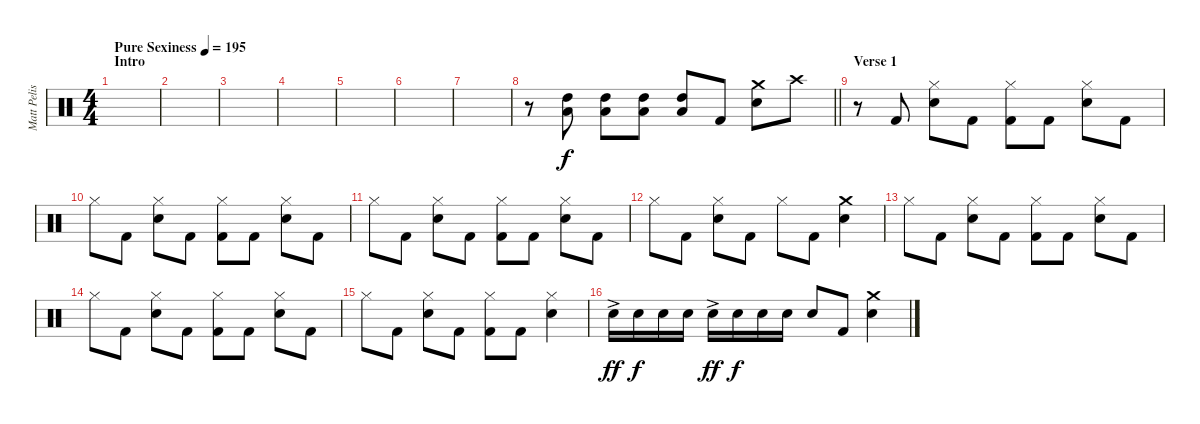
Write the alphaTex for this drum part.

\track ("Matt Pelissier" "Matt Pelis") {instrument percussion}
\staff {score}
\articulation defaults
\ts (4 4)
\section ("" "Intro")
\tempo (195 "Pure Sexiness")
\clef neutral
\ks c
|
|
|
|
|
|
|
\barLineRight lightlight
r.8 ("High Tom (hit)" "Low Tom (hit)").8 ("High Tom (hit)" "Low Tom (hit)").8 ("High Tom (hit)" "Low Tom (hit)").8 ("High Tom (hit)" "Low Tom (hit)").8 "Kick (hit) 2".8 ("Crash medium (hit)" "Electric Snare (hit)").8 "Crash high (hit)".8 |
\section ("" "Verse 1")
r.8 "Kick (hit) 2".8 ("Hi-Hat (closed)" "Electric Snare (hit)").8 "Kick (hit) 2".8 ("Hi-Hat (closed)" "Kick (hit) 2").8 "Kick (hit) 2".8 ("Hi-Hat (closed)" "Electric Snare (hit)").8 "Kick (hit) 2".8 |
"Hi-Hat (closed)".8 "Kick (hit) 2".8 ("Hi-Hat (closed)" "Electric Snare (hit)").8 "Kick (hit) 2".8 ("Hi-Hat (closed)" "Kick (hit) 2").8 "Kick (hit) 2".8 ("Hi-Hat (closed)" "Electric Snare (hit)").8 "Kick (hit) 2".8 |
"Hi-Hat (closed)".8 "Kick (hit) 2".8 ("Hi-Hat (closed)" "Electric Snare (hit)").8 "Kick (hit) 2".8 ("Hi-Hat (closed)" "Kick (hit) 2").8 "Kick (hit) 2".8 ("Hi-Hat (closed)" "Electric Snare (hit)").8 "Kick (hit) 2".8 |
"Hi-Hat (closed)".8 "Kick (hit) 2".8 ("Hi-Hat (closed)" "Electric Snare (hit)").8 "Kick (hit) 2".8 "Hi-Hat (closed)".8 "Kick (hit) 2".8 ("Crash medium (hit)" "Electric Snare (hit)").4 |
"Hi-Hat (closed)".8 "Kick (hit) 2".8 ("Hi-Hat (closed)" "Electric Snare (hit)").8 "Kick (hit) 2".8 ("Hi-Hat (closed)" "Kick (hit) 2").8 "Kick (hit) 2".8 ("Hi-Hat (closed)" "Electric Snare (hit)").8 "Kick (hit) 2".8 |
"Hi-Hat (closed)".8 "Kick (hit) 2".8 ("Hi-Hat (closed)" "Electric Snare (hit)").8 "Kick (hit) 2".8 ("Hi-Hat (closed)" "Kick (hit) 2").8 "Kick (hit) 2".8 ("Hi-Hat (closed)" "Electric Snare (hit)").8 "Kick (hit) 2".8 |
"Hi-Hat (closed)".8 "Kick (hit) 2".8 ("Hi-Hat (closed)" "Electric Snare (hit)").8 "Kick (hit) 2".8 ("Hi-Hat (closed)" "Kick (hit) 2").8 "Kick (hit) 2".8 ("Hi-Hat (closed)" "Electric Snare (hit)").4 |
"Electric Snare (hit)"{ac}.16{dy ff} "Electric Snare (hit)".16{dy f} "Electric Snare (hit)".16 "Electric Snare (hit)".16 "Electric Snare (hit)"{ac}.16{dy ff} "Electric Snare (hit)".16{dy f} "Electric Snare (hit)".16 "Electric Snare (hit)".16 "Electric Snare (hit)".8 "Kick (hit) 2".8 ("Crash medium (hit)" "Electric Snare (hit)").4
